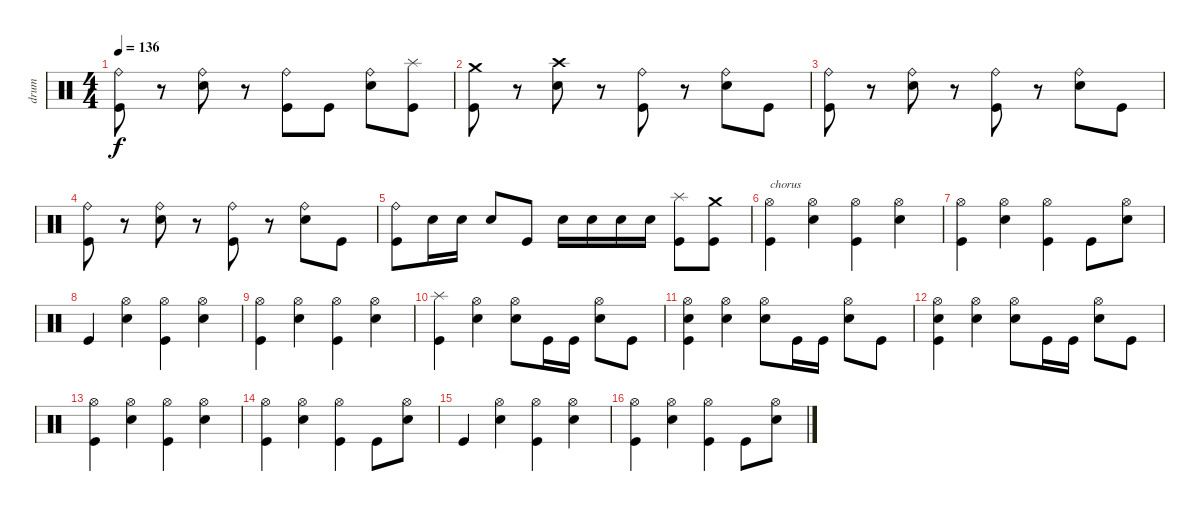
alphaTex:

\track ("drum" "drum") {instrument percussion}
\staff {score}
\articulation defaults
\ts (4 4)
\tempo 136
\clef neutral
\ks c
("Kick (hit)" "Ride (bell)").8{dy f} r.8 ("Electric Snare (hit)" "Ride (bell)").8 r.8 ("Kick (hit)" "Ride (bell)").8 "Kick (hit)".8 ("Electric Snare (hit)" "Ride (bell)").8 ("Kick (hit)" "Splash (hit)").8 |
("Kick (hit)" "Crash medium (hit)").8 r.8 ("Electric Snare (hit)" "Crash high (hit)").8 r.8 ("Kick (hit)" "Ride (bell)").8 r.8 ("Electric Snare (hit)" "Ride (bell)").8 "Kick (hit)".8 |
("Kick (hit)" "Ride (bell)").8 r.8 ("Electric Snare (hit)" "Ride (bell)").8 r.8 ("Kick (hit)" "Ride (bell)").8 r.8 ("Electric Snare (hit)" "Ride (bell)").8 "Kick (hit)".8 |
("Kick (hit)" "Ride (bell)").8 r.8 ("Electric Snare (hit)" "Ride (bell)").8 r.8 ("Kick (hit)" "Ride (bell)").8 r.8 ("Electric Snare (hit)" "Ride (bell)").8 "Kick (hit)".8 |
("Kick (hit)" "Ride (bell)").8 "Electric Snare (hit)".16 "Electric Snare (hit)".16 "Electric Snare (hit)".8 "Kick (hit)".8 "Electric Snare (hit)".16 "Electric Snare (hit)".16 "Electric Snare (hit)".16 "Electric Snare (hit)".16 ("Kick (hit)" "Splash (hit)").8 ("Kick (hit)" "Crash medium (hit)").8 |
("Kick (hit)" "Hi-Hat (open)").4{txt "chorus"} ("Electric Snare (hit)" "Hi-Hat (open)").4 ("Kick (hit)" "Hi-Hat (open)").4 ("Electric Snare (hit)" "Hi-Hat (open)").4 |
("Kick (hit)" "Hi-Hat (open)").4 ("Electric Snare (hit)" "Hi-Hat (open)").4 ("Kick (hit)" "Hi-Hat (open)").4 "Kick (hit)".8 ("Electric Snare (hit)" "Hi-Hat (open)").8 |
"Kick (hit)".4 ("Electric Snare (hit)" "Hi-Hat (open)").4 ("Kick (hit)" "Hi-Hat (open)").4 ("Electric Snare (hit)" "Hi-Hat (open)").4 |
("Kick (hit)" "Hi-Hat (open)").4 ("Electric Snare (hit)" "Hi-Hat (open)").4 ("Kick (hit)" "Hi-Hat (open)").4 ("Electric Snare (hit)" "Hi-Hat (open)").4 |
("Kick (hit)" "Splash (hit)").4 ("Electric Snare (hit)" "Hi-Hat (open)").4 ("Electric Snare (hit)" "Hi-Hat (open)").8 "Kick (hit)".16 "Kick (hit)".16 ("Electric Snare (hit)" "Hi-Hat (open)").8 "Kick (hit)".8 |
("Kick (hit)" "Electric Snare (hit)" "Hi-Hat (open)").4 ("Electric Snare (hit)" "Hi-Hat (open)").4 ("Electric Snare (hit)" "Hi-Hat (open)").8 "Kick (hit)".16 "Kick (hit)".16 ("Electric Snare (hit)" "Hi-Hat (open)").8 "Kick (hit)".8 |
("Kick (hit)" "Electric Snare (hit)" "Hi-Hat (open)").4 ("Electric Snare (hit)" "Hi-Hat (open)").4 ("Electric Snare (hit)" "Hi-Hat (open)").8 "Kick (hit)".16 "Kick (hit)".16 ("Electric Snare (hit)" "Hi-Hat (open)").8 "Kick (hit)".8 |
("Kick (hit)" "Hi-Hat (open)").4 ("Electric Snare (hit)" "Hi-Hat (open)").4 ("Kick (hit)" "Hi-Hat (open)").4 ("Electric Snare (hit)" "Hi-Hat (open)").4 |
("Kick (hit)" "Hi-Hat (open)").4 ("Electric Snare (hit)" "Hi-Hat (open)").4 ("Kick (hit)" "Hi-Hat (open)").4 "Kick (hit)".8 ("Electric Snare (hit)" "Hi-Hat (open)").8 |
"Kick (hit)".4 ("Electric Snare (hit)" "Hi-Hat (open)").4 ("Kick (hit)" "Hi-Hat (open)").4 ("Electric Snare (hit)" "Hi-Hat (open)").4 |
("Kick (hit)" "Hi-Hat (open)").4 ("Electric Snare (hit)" "Hi-Hat (open)").4 ("Kick (hit)" "Hi-Hat (open)").4 "Kick (hit)".8 ("Electric Snare (hit)" "Hi-Hat (open)").8
